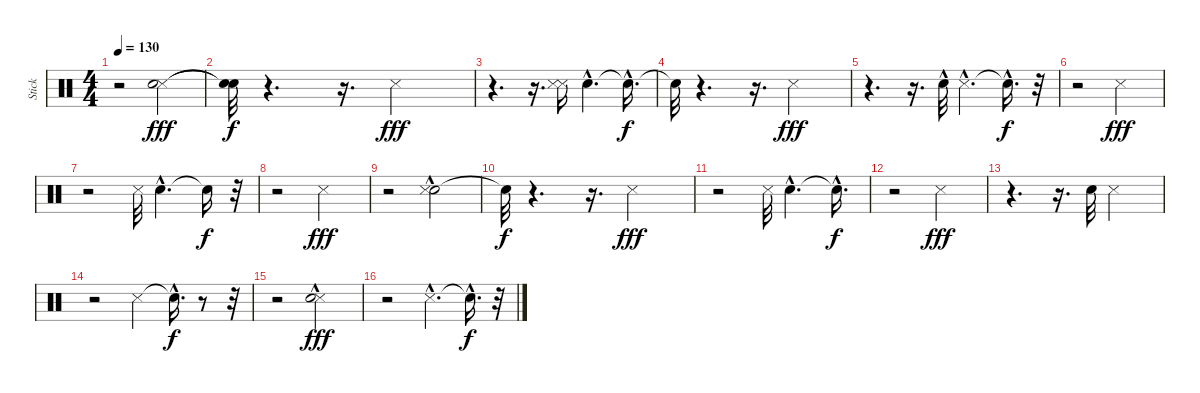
\track ("Stick" "Stick") {instrument percussion}
\staff {score}
\articulation defaults
\ts (4 4)
\tempo 130
\clef neutral
\ks c
r.2{dy fff} ("Snare (side stick) 3" "Snare (hit) 2").2 |
("Snare (hit)"{t} "Snare (hit)"{t}).32{dy f} r.4{d} r.16{d} "Snare (side stick) 3".2{dy fff} |
r.4{d} r.16{d} ("Snare (side stick) 3" "Snare (side stick) 3").16 "Snare (hit) 2"{hac}.4{d} "Snare (hit)"{hac t}.16{d dy f} |
"Snare (hit)"{t}.32 r.4{d} r.16{d} "Snare (side stick) 3".2{dy fff} |
r.4{d} r.16{d} "Snare (hit) 2"{hac}.32 "Snare (side stick) 3"{hac}.4{d} "Snare (hit)"{hac t}.16{d dy f} r.32 |
r.2 "Snare (side stick) 3".2{dy fff} |
r.2 "Snare (side stick) 3".32 "Snare (hit) 2"{hac}.4{d} "Snare (hit)"{t}.16{dy f} r.32 |
r.2 "Snare (side stick) 3".2{dy fff} |
r.2 ("Snare (hit) 2" "Snare (side stick) 3"{hac}).2 |
"Snare (hit)"{t}.32{dy f} r.4{d} r.16{d} "Snare (side stick) 3".2{dy fff} |
r.2 "Snare (side stick) 3".32 "Snare (hit) 2"{hac}.4{d} "Snare (hit)"{hac t}.16{d dy f} |
r.2 "Snare (side stick) 3".2{dy fff} |
r.4{d} r.16{d} "Snare (hit) 2".32 "Snare (side stick) 3".2 |
r.2 "Snare (side stick) 3".4 "Snare (hit)"{hac t}.16{d dy f} r.8 r.32 |
r.2 ("Snare (side stick) 3" "Snare (hit) 2"{hac}).2{dy fff} |
r.2 "Snare (side stick) 3"{hac}.4{d} "Snare (hit)"{hac t}.16{d dy f} r.32
